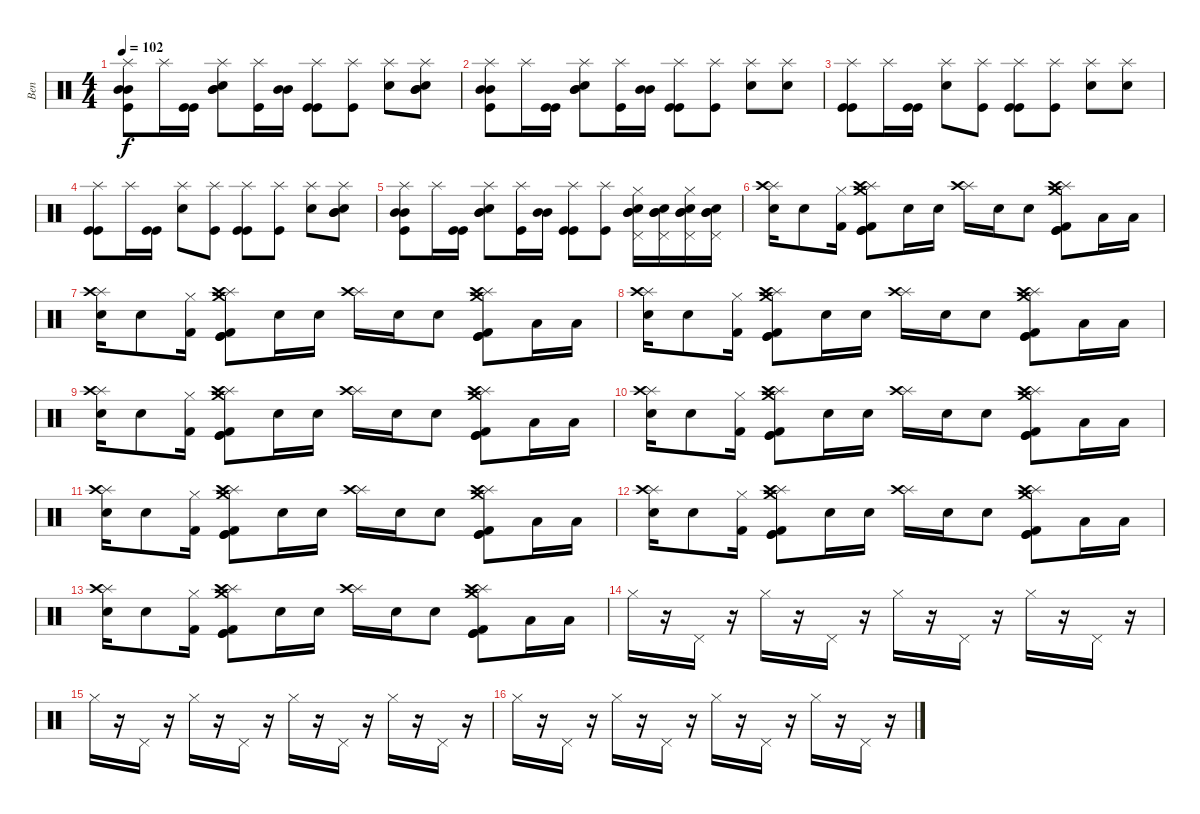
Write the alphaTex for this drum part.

\track ("Ben" "Ben") {instrument percussion}
\staff {score}
\articulation defaults
\ts (4 4)
\tempo 102
\clef neutral
\ks c
("Splash (hit)" "Mid Tom (hit)" "Mid Tom (hit)" "Kick (hit)").8{dy f} "Splash (hit)".16 ("Kick (hit)" "Kick (hit)").16 ("Splash (hit)" "Mid Tom (hit)" "Mid Tom (hit)" "Electric Snare (hit)").8 ("Splash (hit)" "Kick (hit)").16 ("Mid Tom (hit)" "Mid Tom (hit)").16 ("Splash (hit)" "Kick (hit)" "Kick (hit)").8 ("Splash (hit)" "Kick (hit)").8 ("Splash (hit)" "Electric Snare (hit)").8 ("Splash (hit)" "Mid Tom (hit)" "Mid Tom (hit)" "Electric Snare (hit)").8 |
("Splash (hit)" "Mid Tom (hit)" "Mid Tom (hit)" "Kick (hit)").8 "Splash (hit)".16 ("Kick (hit)" "Kick (hit)").16 ("Splash (hit)" "Mid Tom (hit)" "Mid Tom (hit)" "Electric Snare (hit)").8 ("Splash (hit)" "Kick (hit)").16 ("Mid Tom (hit)" "Mid Tom (hit)").16 ("Splash (hit)" "Kick (hit)" "Kick (hit)").8 ("Splash (hit)" "Kick (hit)").8 ("Splash (hit)" "Electric Snare (hit)").8 ("Splash (hit)" "Electric Snare (hit)").8 |
("Splash (hit)" "Kick (hit)" "Kick (hit)").8 "Splash (hit)".16 ("Kick (hit)" "Kick (hit)").16 ("Splash (hit)" "Electric Snare (hit)").8 ("Splash (hit)" "Kick (hit)").8 ("Splash (hit)" "Kick (hit)" "Kick (hit)").8 ("Splash (hit)" "Kick (hit)").8 ("Splash (hit)" "Electric Snare (hit)").8 ("Splash (hit)" "Electric Snare (hit)").8 |
("Splash (hit)" "Kick (hit)" "Kick (hit)").8 "Splash (hit)".16 ("Kick (hit)" "Kick (hit)").16 ("Splash (hit)" "Electric Snare (hit)").8 ("Splash (hit)" "Kick (hit)").8 ("Splash (hit)" "Kick (hit)" "Kick (hit)").8 ("Splash (hit)" "Kick (hit)").8 ("Splash (hit)" "Electric Snare (hit)").8 ("Splash (hit)" "Mid Tom (hit)" "Mid Tom (hit)" "Electric Snare (hit)").8 |
("Splash (hit)" "Mid Tom (hit)" "Mid Tom (hit)" "Kick (hit)").8 "Splash (hit)".16 ("Kick (hit)" "Kick (hit)").16 ("Splash (hit)" "Mid Tom (hit)" "Mid Tom (hit)" "Electric Snare (hit)").8 ("Splash (hit)" "Kick (hit)").16 ("Mid Tom (hit)" "Mid Tom (hit)").16 ("Splash (hit)" "Kick (hit)" "Kick (hit)").8 ("Splash (hit)" "Kick (hit)").8 ("Pedal Hi-Hat (hit)" "Hi-Hat (closed)" "Mid Tom (hit)" "Mid Tom (hit)" "Electric Snare (hit)").16 ("Pedal Hi-Hat (hit)" "Mid Tom (hit)" "Mid Tom (hit)" "Electric Snare (hit)").16 ("Pedal Hi-Hat (hit)" "Hi-Hat (closed)" "Mid Tom (hit)" "Mid Tom (hit)" "Electric Snare (hit)").16 ("Pedal Hi-Hat (hit)" "Mid Tom (hit)" "Mid Tom (hit)" "Electric Snare (hit)").16 |
("Splash (hit)" "Crash high (hit)" "Electric Snare (hit)").16 "Electric Snare (hit)".8 ("Hi-Hat (closed)" "Kick (hit) 2").16 ("Splash (hit)" "Crash high (hit)" "Crash medium (hit)" "Kick (hit) 2" "Kick (hit)" "Kick (hit)").8 "Electric Snare (hit)".16 "Electric Snare (hit)".16 ("Splash (hit)" "Crash high (hit)").16 "Electric Snare (hit)".16 "Electric Snare (hit)".8 ("Splash (hit)" "Crash high (hit)" "Crash medium (hit)" "Kick (hit) 2" "Kick (hit)" "Kick (hit)").8 "Low Floor Tom (hit)".16 "Low Floor Tom (hit)".16 |
("Splash (hit)" "Crash high (hit)" "Electric Snare (hit)").16 "Electric Snare (hit)".8 ("Hi-Hat (closed)" "Kick (hit) 2").16 ("Splash (hit)" "Crash high (hit)" "Crash medium (hit)" "Kick (hit) 2" "Kick (hit)" "Kick (hit)").8 "Electric Snare (hit)".16 "Electric Snare (hit)".16 ("Splash (hit)" "Crash high (hit)").16 "Electric Snare (hit)".16 "Electric Snare (hit)".8 ("Splash (hit)" "Crash high (hit)" "Crash medium (hit)" "Kick (hit) 2" "Kick (hit)" "Kick (hit)").8 "Low Floor Tom (hit)".16 "Low Floor Tom (hit)".16 |
("Splash (hit)" "Crash high (hit)" "Electric Snare (hit)").16 "Electric Snare (hit)".8 ("Hi-Hat (closed)" "Kick (hit) 2").16 ("Splash (hit)" "Crash high (hit)" "Crash medium (hit)" "Kick (hit) 2" "Kick (hit)" "Kick (hit)").8 "Electric Snare (hit)".16 "Electric Snare (hit)".16 ("Splash (hit)" "Crash high (hit)").16 "Electric Snare (hit)".16 "Electric Snare (hit)".8 ("Splash (hit)" "Crash high (hit)" "Crash medium (hit)" "Kick (hit) 2" "Kick (hit)" "Kick (hit)").8 "Low Floor Tom (hit)".16 "Low Floor Tom (hit)".16 |
("Splash (hit)" "Crash high (hit)" "Electric Snare (hit)").16 "Electric Snare (hit)".8 ("Hi-Hat (closed)" "Kick (hit) 2").16 ("Splash (hit)" "Crash high (hit)" "Crash medium (hit)" "Kick (hit) 2" "Kick (hit)" "Kick (hit)").8 "Electric Snare (hit)".16 "Electric Snare (hit)".16 ("Splash (hit)" "Crash high (hit)").16 "Electric Snare (hit)".16 "Electric Snare (hit)".8 ("Splash (hit)" "Crash high (hit)" "Crash medium (hit)" "Kick (hit) 2" "Kick (hit)" "Kick (hit)").8 "Low Floor Tom (hit)".16 "Low Floor Tom (hit)".16 |
("Splash (hit)" "Crash high (hit)" "Electric Snare (hit)").16 "Electric Snare (hit)".8 ("Hi-Hat (closed)" "Kick (hit) 2").16 ("Splash (hit)" "Crash high (hit)" "Crash medium (hit)" "Kick (hit) 2" "Kick (hit)" "Kick (hit)").8 "Electric Snare (hit)".16 "Electric Snare (hit)".16 ("Splash (hit)" "Crash high (hit)").16 "Electric Snare (hit)".16 "Electric Snare (hit)".8 ("Splash (hit)" "Crash high (hit)" "Crash medium (hit)" "Kick (hit) 2" "Kick (hit)" "Kick (hit)").8 "Low Floor Tom (hit)".16 "Low Floor Tom (hit)".16 |
("Splash (hit)" "Crash high (hit)" "Electric Snare (hit)").16 "Electric Snare (hit)".8 ("Hi-Hat (closed)" "Kick (hit) 2").16 ("Splash (hit)" "Crash high (hit)" "Crash medium (hit)" "Kick (hit) 2" "Kick (hit)" "Kick (hit)").8 "Electric Snare (hit)".16 "Electric Snare (hit)".16 ("Splash (hit)" "Crash high (hit)").16 "Electric Snare (hit)".16 "Electric Snare (hit)".8 ("Splash (hit)" "Crash high (hit)" "Crash medium (hit)" "Kick (hit) 2" "Kick (hit)" "Kick (hit)").8 "Low Floor Tom (hit)".16 "Low Floor Tom (hit)".16 |
("Splash (hit)" "Crash high (hit)" "Electric Snare (hit)").16 "Electric Snare (hit)".8 ("Hi-Hat (closed)" "Kick (hit) 2").16 ("Splash (hit)" "Crash high (hit)" "Crash medium (hit)" "Kick (hit) 2" "Kick (hit)" "Kick (hit)").8 "Electric Snare (hit)".16 "Electric Snare (hit)".16 ("Splash (hit)" "Crash high (hit)").16 "Electric Snare (hit)".16 "Electric Snare (hit)".8 ("Splash (hit)" "Crash high (hit)" "Crash medium (hit)" "Kick (hit) 2" "Kick (hit)" "Kick (hit)").8 "Low Floor Tom (hit)".16 "Low Floor Tom (hit)".16 |
("Splash (hit)" "Crash high (hit)" "Electric Snare (hit)").16 "Electric Snare (hit)".8 ("Hi-Hat (closed)" "Kick (hit) 2").16 ("Splash (hit)" "Crash high (hit)" "Crash medium (hit)" "Kick (hit) 2" "Kick (hit)" "Kick (hit)").8 "Electric Snare (hit)".16 "Electric Snare (hit)".16 ("Splash (hit)" "Crash high (hit)").16 "Electric Snare (hit)".16 "Electric Snare (hit)".8 ("Splash (hit)" "Crash high (hit)" "Crash medium (hit)" "Kick (hit) 2" "Kick (hit)" "Kick (hit)").8 "Low Floor Tom (hit)".16 "Low Floor Tom (hit)".16 |
"Hi-Hat (closed)".16 r.16 "Pedal Hi-Hat (hit)".16 r.16 "Hi-Hat (closed)".16 r.16 "Pedal Hi-Hat (hit)".16 r.16 "Hi-Hat (closed)".16 r.16 "Pedal Hi-Hat (hit)".16 r.16 "Hi-Hat (closed)".16 r.16 "Pedal Hi-Hat (hit)".16 r.16 |
"Hi-Hat (closed)".16 r.16 "Pedal Hi-Hat (hit)".16 r.16 "Hi-Hat (closed)".16 r.16 "Pedal Hi-Hat (hit)".16 r.16 "Hi-Hat (closed)".16 r.16 "Pedal Hi-Hat (hit)".16 r.16 "Hi-Hat (closed)".16 r.16 "Pedal Hi-Hat (hit)".16 r.16 |
"Hi-Hat (closed)".16 r.16 "Pedal Hi-Hat (hit)".16 r.16 "Hi-Hat (closed)".16 r.16 "Pedal Hi-Hat (hit)".16 r.16 "Hi-Hat (closed)".16 r.16 "Pedal Hi-Hat (hit)".16 r.16 "Hi-Hat (closed)".16 r.16 "Pedal Hi-Hat (hit)".16 r.16
